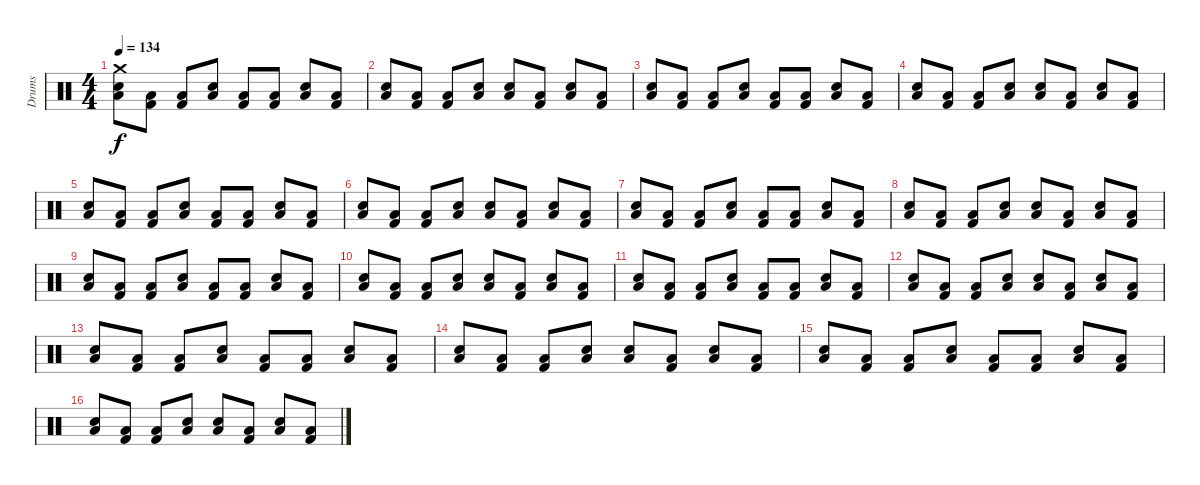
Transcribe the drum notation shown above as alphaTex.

\track ("Drums" "Drums") {instrument percussion}
\staff {score}
\articulation defaults
\ts (4 4)
\tempo 134
\clef neutral
\ks c
("Crash medium (hit)" "Low Tom (hit)" "Snare (hit) 2").8{dy f volume 10} ("Low Tom (hit)" "Kick (hit) 2").8 ("Low Tom (hit)" "Kick (hit) 2").8 ("Low Tom (hit)" "Snare (hit) 2").8 ("Low Tom (hit)" "Kick (hit) 2").8 ("Low Tom (hit)" "Kick (hit) 2").8 ("Low Tom (hit)" "Snare (hit) 2").8 ("Low Tom (hit)" "Kick (hit) 2").8 |
("Low Tom (hit)" "Snare (hit) 2").8 ("Low Tom (hit)" "Kick (hit) 2").8 ("Low Tom (hit)" "Kick (hit) 2").8 ("Low Tom (hit)" "Snare (hit) 2").8 ("Low Tom (hit)" "Snare (hit) 2").8 ("Low Tom (hit)" "Kick (hit) 2").8 ("Low Tom (hit)" "Snare (hit) 2").8 ("Low Tom (hit)" "Kick (hit) 2").8 |
("Low Tom (hit)" "Snare (hit) 2").8 ("Low Tom (hit)" "Kick (hit) 2").8 ("Low Tom (hit)" "Kick (hit) 2").8 ("Low Tom (hit)" "Snare (hit) 2").8 ("Low Tom (hit)" "Kick (hit) 2").8 ("Low Tom (hit)" "Kick (hit) 2").8 ("Low Tom (hit)" "Snare (hit) 2").8 ("Low Tom (hit)" "Kick (hit) 2").8 |
("Low Tom (hit)" "Snare (hit) 2").8 ("Low Tom (hit)" "Kick (hit) 2").8 ("Low Tom (hit)" "Kick (hit) 2").8 ("Low Tom (hit)" "Snare (hit) 2").8 ("Low Tom (hit)" "Snare (hit) 2").8 ("Low Tom (hit)" "Kick (hit) 2").8 ("Low Tom (hit)" "Snare (hit) 2").8 ("Low Tom (hit)" "Kick (hit) 2").8 |
("Low Tom (hit)" "Snare (hit) 2").8 ("Low Tom (hit)" "Kick (hit) 2").8 ("Low Tom (hit)" "Kick (hit) 2").8 ("Low Tom (hit)" "Snare (hit) 2").8 ("Low Tom (hit)" "Kick (hit) 2").8 ("Low Tom (hit)" "Kick (hit) 2").8 ("Low Tom (hit)" "Snare (hit) 2").8 ("Low Tom (hit)" "Kick (hit) 2").8 |
("Low Tom (hit)" "Snare (hit) 2").8 ("Low Tom (hit)" "Kick (hit) 2").8 ("Low Tom (hit)" "Kick (hit) 2").8 ("Low Tom (hit)" "Snare (hit) 2").8 ("Low Tom (hit)" "Snare (hit) 2").8 ("Low Tom (hit)" "Kick (hit) 2").8 ("Low Tom (hit)" "Snare (hit) 2").8 ("Low Tom (hit)" "Kick (hit) 2").8 |
("Low Tom (hit)" "Snare (hit) 2").8 ("Low Tom (hit)" "Kick (hit) 2").8 ("Low Tom (hit)" "Kick (hit) 2").8 ("Low Tom (hit)" "Snare (hit) 2").8 ("Low Tom (hit)" "Kick (hit) 2").8 ("Low Tom (hit)" "Kick (hit) 2").8 ("Low Tom (hit)" "Snare (hit) 2").8 ("Low Tom (hit)" "Kick (hit) 2").8 |
("Low Tom (hit)" "Snare (hit) 2").8 ("Low Tom (hit)" "Kick (hit) 2").8 ("Low Tom (hit)" "Kick (hit) 2").8 ("Low Tom (hit)" "Snare (hit) 2").8 ("Low Tom (hit)" "Snare (hit) 2").8 ("Low Tom (hit)" "Kick (hit) 2").8 ("Low Tom (hit)" "Snare (hit) 2").8 ("Low Tom (hit)" "Kick (hit) 2").8 |
("Low Tom (hit)" "Snare (hit) 2").8 ("Low Tom (hit)" "Kick (hit) 2").8 ("Low Tom (hit)" "Kick (hit) 2").8 ("Low Tom (hit)" "Snare (hit) 2").8 ("Low Tom (hit)" "Kick (hit) 2").8 ("Low Tom (hit)" "Kick (hit) 2").8 ("Low Tom (hit)" "Snare (hit) 2").8 ("Low Tom (hit)" "Kick (hit) 2").8 |
("Low Tom (hit)" "Snare (hit) 2").8 ("Low Tom (hit)" "Kick (hit) 2").8 ("Low Tom (hit)" "Kick (hit) 2").8 ("Low Tom (hit)" "Snare (hit) 2").8 ("Low Tom (hit)" "Snare (hit) 2").8 ("Low Tom (hit)" "Kick (hit) 2").8 ("Low Tom (hit)" "Snare (hit) 2").8 ("Low Tom (hit)" "Kick (hit) 2").8 |
("Low Tom (hit)" "Snare (hit) 2").8 ("Low Tom (hit)" "Kick (hit) 2").8 ("Low Tom (hit)" "Kick (hit) 2").8 ("Low Tom (hit)" "Snare (hit) 2").8 ("Low Tom (hit)" "Kick (hit) 2").8 ("Low Tom (hit)" "Kick (hit) 2").8 ("Low Tom (hit)" "Snare (hit) 2").8 ("Low Tom (hit)" "Kick (hit) 2").8 |
("Low Tom (hit)" "Snare (hit) 2").8 ("Low Tom (hit)" "Kick (hit) 2").8 ("Low Tom (hit)" "Kick (hit) 2").8 ("Low Tom (hit)" "Snare (hit) 2").8 ("Low Tom (hit)" "Snare (hit) 2").8 ("Low Tom (hit)" "Kick (hit) 2").8 ("Low Tom (hit)" "Snare (hit) 2").8 ("Low Tom (hit)" "Kick (hit) 2").8 |
("Low Tom (hit)" "Snare (hit) 2").8 ("Low Tom (hit)" "Kick (hit) 2").8 ("Low Tom (hit)" "Kick (hit) 2").8 ("Low Tom (hit)" "Snare (hit) 2").8 ("Low Tom (hit)" "Kick (hit) 2").8 ("Low Tom (hit)" "Kick (hit) 2").8 ("Low Tom (hit)" "Snare (hit) 2").8 ("Low Tom (hit)" "Kick (hit) 2").8 |
("Low Tom (hit)" "Snare (hit) 2").8 ("Low Tom (hit)" "Kick (hit) 2").8 ("Low Tom (hit)" "Kick (hit) 2").8 ("Low Tom (hit)" "Snare (hit) 2").8 ("Low Tom (hit)" "Snare (hit) 2").8 ("Low Tom (hit)" "Kick (hit) 2").8 ("Low Tom (hit)" "Snare (hit) 2").8 ("Low Tom (hit)" "Kick (hit) 2").8 |
("Low Tom (hit)" "Snare (hit) 2").8 ("Low Tom (hit)" "Kick (hit) 2").8 ("Low Tom (hit)" "Kick (hit) 2").8 ("Low Tom (hit)" "Snare (hit) 2").8 ("Low Tom (hit)" "Kick (hit) 2").8 ("Low Tom (hit)" "Kick (hit) 2").8 ("Low Tom (hit)" "Snare (hit) 2").8 ("Low Tom (hit)" "Kick (hit) 2").8 |
("Low Tom (hit)" "Snare (hit) 2").8 ("Low Tom (hit)" "Kick (hit) 2").8 ("Low Tom (hit)" "Kick (hit) 2").8 ("Low Tom (hit)" "Snare (hit) 2").8 ("Low Tom (hit)" "Snare (hit) 2").8 ("Low Tom (hit)" "Kick (hit) 2").8 ("Low Tom (hit)" "Snare (hit) 2").8 ("Low Tom (hit)" "Kick (hit) 2").8
